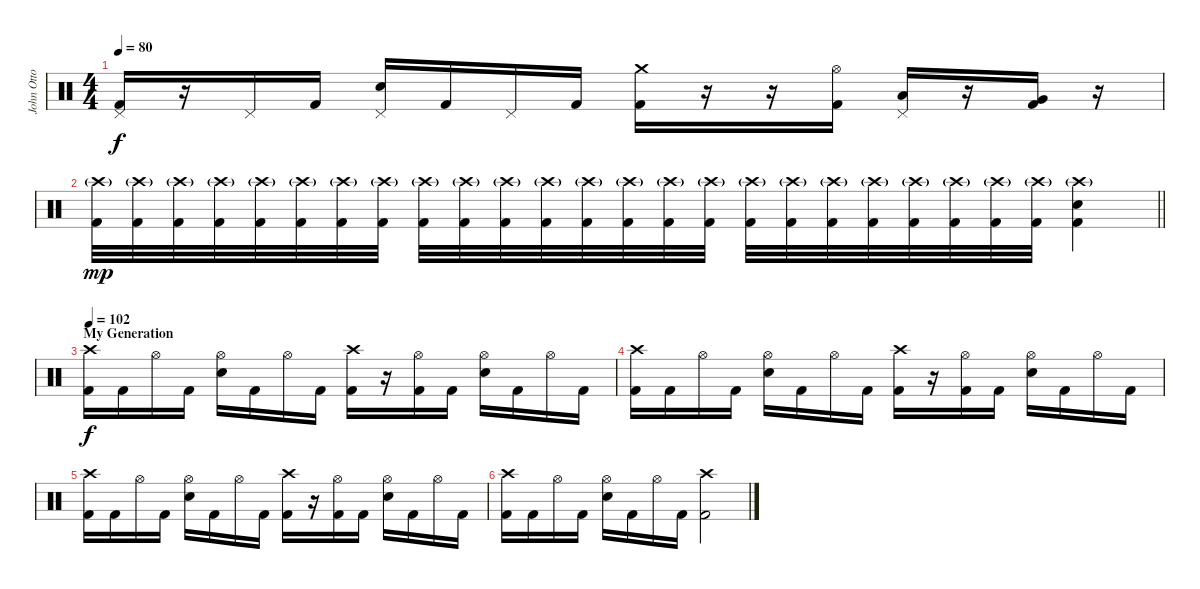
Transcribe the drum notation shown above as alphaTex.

\track ("John Otto" "John Otto") {instrument percussion}
\staff {score}
\articulation defaults
\ts (4 4)
\tempo 80
\clef neutral
\ks c
("Pedal Hi-Hat (hit)" "Kick (hit) 2").16{dy f} r.16 "Pedal Hi-Hat (hit)".16 "Kick (hit) 2".16 ("Pedal Hi-Hat (hit)" "Snare (hit) 2").16 "Kick (hit) 2".16 "Pedal Hi-Hat (hit)".16 "Kick (hit) 2".16 ("Crash medium (hit)" "Kick (hit) 2").16 r.16 r.16 ("Hi-Hat (open)" "Kick (hit) 2").16 ("Pedal Hi-Hat (hit)" "Low Tom (hit)").16 r.16 ("Very Low Tom (hit)" "Kick (hit) 2").16 r.16 |
\barLineRight lightlight
("Crash high (hit)"{g} "Kick (hit) 2").32{dy mp} ("Crash high (hit)"{g} "Kick (hit) 2").32 ("Crash high (hit)"{g} "Kick (hit) 2").32 ("Crash high (hit)"{g} "Kick (hit) 2").32 ("Crash high (hit)"{g} "Kick (hit) 2").32 ("Crash high (hit)"{g} "Kick (hit) 2").32 ("Crash high (hit)"{g} "Kick (hit) 2").32 ("Crash high (hit)"{g} "Kick (hit) 2").32 ("Crash high (hit)"{g} "Kick (hit) 2").32 ("Crash high (hit)"{g} "Kick (hit) 2").32 ("Crash high (hit)"{g} "Kick (hit) 2").32 ("Crash high (hit)"{g} "Kick (hit) 2").32 ("Crash high (hit)"{g} "Kick (hit) 2").32 ("Crash high (hit)"{g} "Kick (hit) 2").32 ("Crash high (hit)"{g} "Kick (hit) 2").32 ("Crash high (hit)"{g} "Kick (hit) 2").32 ("Crash high (hit)"{g} "Kick (hit) 2").32 ("Crash high (hit)"{g} "Kick (hit) 2").32 ("Crash high (hit)"{g} "Kick (hit) 2").32 ("Crash high (hit)"{g} "Kick (hit) 2").32 ("Crash high (hit)"{g} "Kick (hit) 2").32 ("Crash high (hit)"{g} "Kick (hit) 2").32 ("Crash high (hit)"{g} "Kick (hit) 2").32 ("Crash high (hit)"{g} "Kick (hit) 2").32 ("Crash high (hit)"{g} "Snare (hit) 2" "Kick (hit) 2").4 |
\section ("" "My Generation")
\tempo 102
("Crash high (hit)" "Kick (hit) 2").16{dy f} "Kick (hit) 2".16 "Hi-Hat (open)".16 "Kick (hit) 2".16 ("Hi-Hat (open)" "Snare (hit) 2").16 "Kick (hit) 2".16 "Hi-Hat (open)".16 "Kick (hit) 2".16 ("Crash high (hit)" "Kick (hit) 2").16 r.16 ("Hi-Hat (open)" "Kick (hit) 2").16 "Kick (hit) 2".16 ("Hi-Hat (open)" "Snare (hit) 2").16 "Kick (hit) 2".16 "Hi-Hat (open)".16 "Kick (hit) 2".16 |
("Crash high (hit)" "Kick (hit) 2").16 "Kick (hit) 2".16 "Hi-Hat (open)".16 "Kick (hit) 2".16 ("Hi-Hat (open)" "Snare (hit) 2").16 "Kick (hit) 2".16 "Hi-Hat (open)".16 "Kick (hit) 2".16 ("Crash high (hit)" "Kick (hit) 2").16 r.16 ("Hi-Hat (open)" "Kick (hit) 2").16 "Kick (hit) 2".16 ("Hi-Hat (open)" "Snare (hit) 2").16 "Kick (hit) 2".16 "Hi-Hat (open)".16 "Kick (hit) 2".16 |
("Crash high (hit)" "Kick (hit) 2").16 "Kick (hit) 2".16 "Hi-Hat (open)".16 "Kick (hit) 2".16 ("Hi-Hat (open)" "Snare (hit) 2").16 "Kick (hit) 2".16 "Hi-Hat (open)".16 "Kick (hit) 2".16 ("Crash high (hit)" "Kick (hit) 2").16 r.16 ("Hi-Hat (open)" "Kick (hit) 2").16 "Kick (hit) 2".16 ("Hi-Hat (open)" "Snare (hit) 2").16 "Kick (hit) 2".16 "Hi-Hat (open)".16 "Kick (hit) 2".16 |
("Crash high (hit)" "Kick (hit) 2").16 "Kick (hit) 2".16 "Hi-Hat (open)".16 "Kick (hit) 2".16 ("Hi-Hat (open)" "Snare (hit) 2").16 "Kick (hit) 2".16 "Hi-Hat (open)".16 "Kick (hit) 2".16 ("Crash high (hit)" "Kick (hit) 2").2
